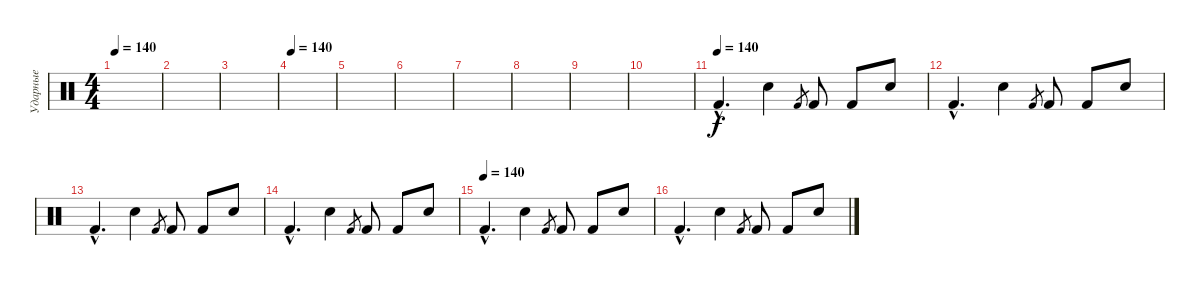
\track ("Ударные" "Ударные") {instrument percussion}
\staff {score}
\articulation defaults
\ts (4 4)
\tempo 140
\clef neutral
\ks c
|
|
|
\tempo 140
|
|
|
|
|
|
|
\tempo (140)
"Kick (hit) 2"{hac}.4{d} "Hand Clap (hit)".4 "Kick (hit) 2".8{gr} "Kick (hit) 2".8 "Kick (hit) 2".8 "Hand Clap (hit)".8 |
"Kick (hit) 2"{hac}.4{d} "Hand Clap (hit)".4 "Kick (hit) 2".8{gr} "Kick (hit) 2".8 "Kick (hit) 2".8 "Hand Clap (hit)".8 |
"Kick (hit) 2"{hac}.4{d} "Hand Clap (hit)".4 "Kick (hit) 2".8{gr} "Kick (hit) 2".8 "Kick (hit) 2".8 "Hand Clap (hit)".8 |
"Kick (hit) 2"{hac}.4{d} "Hand Clap (hit)".4 "Kick (hit) 2".8{gr} "Kick (hit) 2".8 "Kick (hit) 2".8 "Hand Clap (hit)".8 |
\tempo (140)
"Kick (hit) 2"{hac}.4{d} "Hand Clap (hit)".4 "Kick (hit) 2".8{gr} "Kick (hit) 2".8 "Kick (hit) 2".8 "Hand Clap (hit)".8 |
"Kick (hit) 2"{hac}.4{d} "Hand Clap (hit)".4 "Kick (hit) 2".8{gr} "Kick (hit) 2".8 "Kick (hit) 2".8 "Hand Clap (hit)".8
